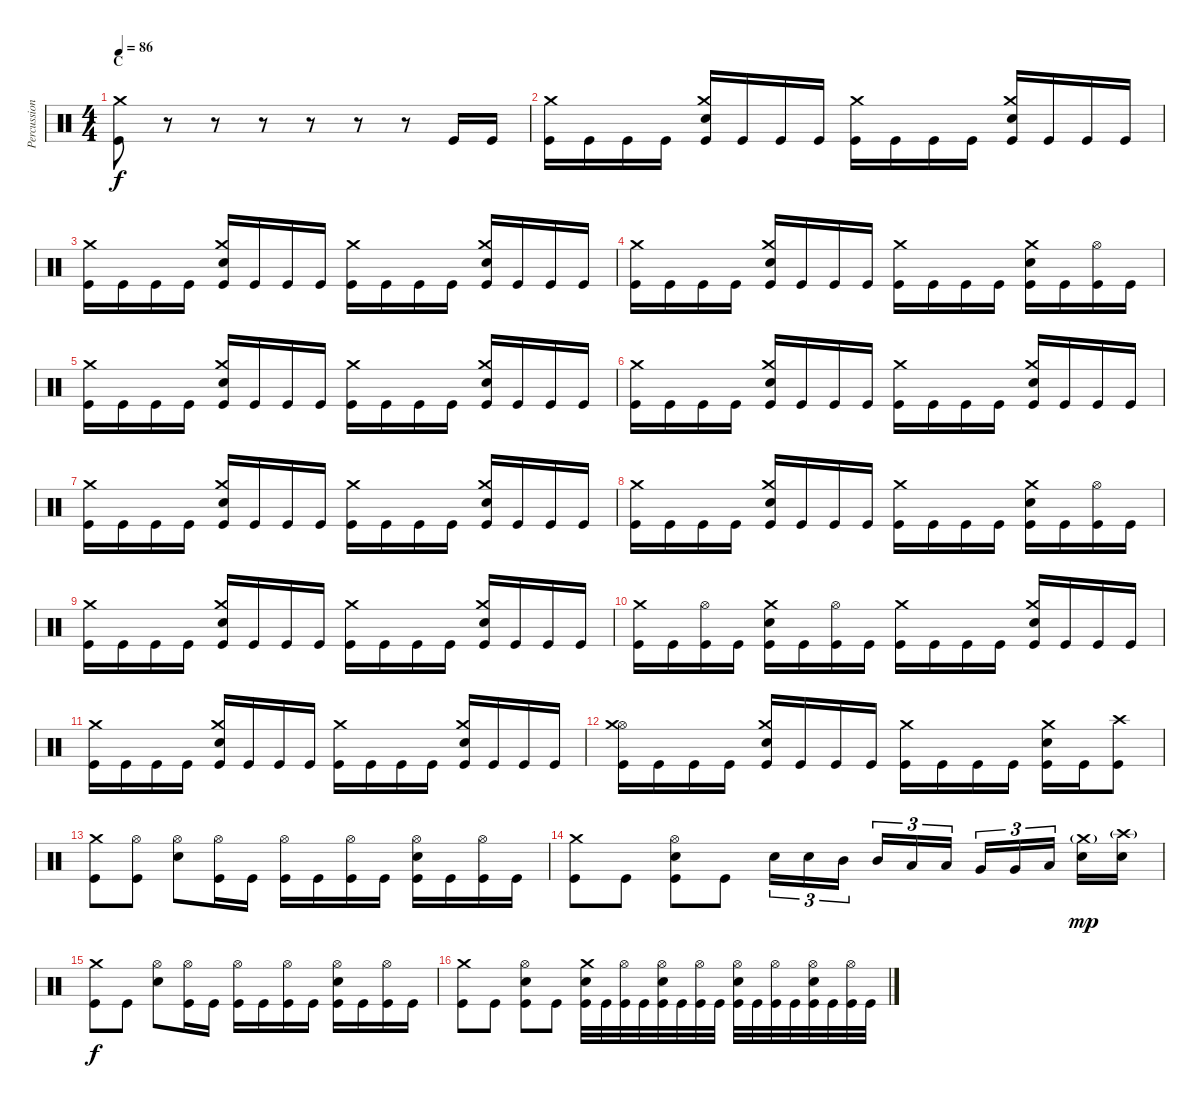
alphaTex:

\track ("Percussion" "Percussion") {instrument percussion}
\staff {score}
\articulation defaults
\ts (4 4)
\section ("" "C")
\tempo 86
\clef neutral
\ks c
("Kick (hit)" "Crash medium (hit)").8{dy f} r.8 r.8 r.8 r.8 r.8 r.8 "Kick (hit)".16 "Kick (hit)".16 |
("Kick (hit)" "Crash medium (hit)").16 "Kick (hit)".16 "Kick (hit)".16 "Kick (hit)".16 ("Kick (hit)" "Snare (hit) 2" "Crash medium (hit)").16 "Kick (hit)".16 "Kick (hit)".16 "Kick (hit)".16 ("Kick (hit)" "Crash medium (hit)").16 "Kick (hit)".16 "Kick (hit)".16 "Kick (hit)".16 ("Kick (hit)" "Snare (hit) 2" "Crash medium (hit)").16 "Kick (hit)".16 "Kick (hit)".16 "Kick (hit)".16 |
("Kick (hit)" "Crash medium (hit)").16 "Kick (hit)".16 "Kick (hit)".16 "Kick (hit)".16 ("Kick (hit)" "Snare (hit) 2" "Crash medium (hit)").16 "Kick (hit)".16 "Kick (hit)".16 "Kick (hit)".16 ("Kick (hit)" "Crash medium (hit)").16 "Kick (hit)".16 "Kick (hit)".16 "Kick (hit)".16 ("Kick (hit)" "Snare (hit) 2" "Crash medium (hit)").16 "Kick (hit)".16 "Kick (hit)".16 "Kick (hit)".16 |
("Kick (hit)" "Crash medium (hit)").16 "Kick (hit)".16 "Kick (hit)".16 "Kick (hit)".16 ("Kick (hit)" "Snare (hit) 2" "Crash medium (hit)").16 "Kick (hit)".16 "Kick (hit)".16 "Kick (hit)".16 ("Kick (hit)" "Crash medium (hit)").16 "Kick (hit)".16 "Kick (hit)".16 "Kick (hit)".16 ("Kick (hit)" "Snare (hit) 2" "Crash medium (hit)").16 "Kick (hit)".16 ("Kick (hit)" "Hi-Hat (open)").16 "Kick (hit)".16 |
("Kick (hit)" "Crash medium (hit)").16 "Kick (hit)".16 "Kick (hit)".16 "Kick (hit)".16 ("Kick (hit)" "Snare (hit) 2" "Crash medium (hit)").16 "Kick (hit)".16 "Kick (hit)".16 "Kick (hit)".16 ("Kick (hit)" "Crash medium (hit)").16 "Kick (hit)".16 "Kick (hit)".16 "Kick (hit)".16 ("Kick (hit)" "Snare (hit) 2" "Crash medium (hit)").16 "Kick (hit)".16 "Kick (hit)".16 "Kick (hit)".16 |
("Kick (hit)" "Crash medium (hit)").16 "Kick (hit)".16 "Kick (hit)".16 "Kick (hit)".16 ("Kick (hit)" "Snare (hit) 2" "Crash medium (hit)").16 "Kick (hit)".16 "Kick (hit)".16 "Kick (hit)".16 ("Kick (hit)" "Crash medium (hit)").16 "Kick (hit)".16 "Kick (hit)".16 "Kick (hit)".16 ("Kick (hit)" "Snare (hit) 2" "Crash medium (hit)").16 "Kick (hit)".16 "Kick (hit)".16 "Kick (hit)".16 |
("Kick (hit)" "Crash medium (hit)").16 "Kick (hit)".16 "Kick (hit)".16 "Kick (hit)".16 ("Kick (hit)" "Snare (hit) 2" "Crash medium (hit)").16 "Kick (hit)".16 "Kick (hit)".16 "Kick (hit)".16 ("Kick (hit)" "Crash medium (hit)").16 "Kick (hit)".16 "Kick (hit)".16 "Kick (hit)".16 ("Kick (hit)" "Snare (hit) 2" "Crash medium (hit)").16 "Kick (hit)".16 "Kick (hit)".16 "Kick (hit)".16 |
("Kick (hit)" "Crash medium (hit)").16 "Kick (hit)".16 "Kick (hit)".16 "Kick (hit)".16 ("Kick (hit)" "Snare (hit) 2" "Crash medium (hit)").16 "Kick (hit)".16 "Kick (hit)".16 "Kick (hit)".16 ("Kick (hit)" "Crash medium (hit)").16 "Kick (hit)".16 "Kick (hit)".16 "Kick (hit)".16 ("Kick (hit)" "Snare (hit) 2" "Crash medium (hit)").16 "Kick (hit)".16 ("Kick (hit)" "Hi-Hat (open)").16 "Kick (hit)".16 |
("Kick (hit)" "Crash medium (hit)").16 "Kick (hit)".16 "Kick (hit)".16 "Kick (hit)".16 ("Kick (hit)" "Snare (hit) 2" "Crash medium (hit)").16 "Kick (hit)".16 "Kick (hit)".16 "Kick (hit)".16 ("Kick (hit)" "Crash medium (hit)").16 "Kick (hit)".16 "Kick (hit)".16 "Kick (hit)".16 ("Kick (hit)" "Snare (hit) 2" "Crash medium (hit)").16 "Kick (hit)".16 "Kick (hit)".16 "Kick (hit)".16 |
("Kick (hit)" "Crash medium (hit)").16 "Kick (hit)".16 ("Kick (hit)" "Hi-Hat (open)").16 "Kick (hit)".16 ("Kick (hit)" "Snare (hit) 2" "Crash medium (hit)").16 "Kick (hit)".16 ("Kick (hit)" "Hi-Hat (open)").16 "Kick (hit)".16 ("Kick (hit)" "Crash medium (hit)").16 "Kick (hit)".16 "Kick (hit)".16 "Kick (hit)".16 ("Kick (hit)" "Snare (hit) 2" "Crash medium (hit)").16 "Kick (hit)".16 "Kick (hit)".16 "Kick (hit)".16 |
("Kick (hit)" "Crash medium (hit)").16 "Kick (hit)".16 "Kick (hit)".16 "Kick (hit)".16 ("Kick (hit)" "Snare (hit) 2" "Crash medium (hit)").16 "Kick (hit)".16 "Kick (hit)".16 "Kick (hit)".16 ("Kick (hit)" "Crash medium (hit)").16 "Kick (hit)".16 "Kick (hit)".16 "Kick (hit)".16 ("Kick (hit)" "Snare (hit) 2" "Crash medium (hit)").16 "Kick (hit)".16 "Kick (hit)".16 "Kick (hit)".16 |
("Kick (hit)" "Hi-Hat (open)" "Crash medium (hit)").16 "Kick (hit)".16 "Kick (hit)".16 "Kick (hit)".16 ("Kick (hit)" "Snare (hit) 2" "Crash medium (hit)").16 "Kick (hit)".16 "Kick (hit)".16 "Kick (hit)".16 ("Kick (hit)" "Crash medium (hit)").16 "Kick (hit)".16 "Kick (hit)".16 "Kick (hit)".16 ("Kick (hit)" "Snare (hit) 2" "Crash medium (hit)").16 "Kick (hit)".16 ("Kick (hit)" "Crash high (hit)").8 |
("Kick (hit)" "Crash medium (hit)").8 ("Kick (hit)" "Hi-Hat (open)").8 ("Snare (hit) 2" "Hi-Hat (open)").8 ("Kick (hit)" "Hi-Hat (open)").16 "Kick (hit)".16 ("Kick (hit)" "Hi-Hat (open)").16 "Kick (hit)".16 ("Kick (hit)" "Hi-Hat (open)").16 "Kick (hit)".16 ("Kick (hit)" "Snare (hit) 2" "Hi-Hat (open)").16 "Kick (hit)".16 ("Kick (hit)" "Hi-Hat (open)").16 "Kick (hit)".16 |
("Kick (hit)" "Crash medium (hit)").8 "Kick (hit)".8 ("Kick (hit)" "Snare (hit) 2" "Hi-Hat (open)").8 "Kick (hit)".8 "Snare (hit) 2".16{tu (3 2)} "Snare (hit) 2".16{tu (3 2)} "Mid Tom (hit)".16{tu (3 2) beam splitsecondary} "Mid Tom (hit)".16{tu (3 2)} "Low Tom (hit)".16{tu (3 2)} "Low Tom (hit)".16{tu (3 2)} "Very Low Tom (hit)".16{tu (3 2)} "Very Low Tom (hit)".16{tu (3 2)} "Low Floor Tom (hit)".16{tu (3 2) beam splitsecondary} ("Crash medium (hit)"{g} "Snare (hit) 2").16{dy mp} ("Crash high (hit)"{g} "Snare (hit) 2").16 |
("Kick (hit)" "Crash medium (hit)").8{dy f} "Kick (hit)".8 ("Snare (hit) 2" "Hi-Hat (open)").8 ("Kick (hit)" "Hi-Hat (open)").16 "Kick (hit)".16 ("Kick (hit)" "Hi-Hat (open)").16 "Kick (hit)".16 ("Kick (hit)" "Hi-Hat (open)").16 "Kick (hit)".16 ("Kick (hit)" "Snare (hit) 2" "Hi-Hat (open)").16 "Kick (hit)".16 ("Kick (hit)" "Hi-Hat (open)").16 "Kick (hit)".16 |
("Kick (hit)" "Crash medium (hit)").8 "Kick (hit)".8 ("Kick (hit)" "Snare (hit) 2" "Hi-Hat (open)").8 "Kick (hit)".8 ("Kick (hit)" "Snare (hit) 2" "Crash medium (hit)").32 "Kick (hit)".32 ("Kick (hit)" "Hi-Hat (open)").32 "Kick (hit)".32 ("Kick (hit)" "Snare (hit) 2" "Hi-Hat (open)").32 "Kick (hit)".32 ("Kick (hit)" "Hi-Hat (open)").32 "Kick (hit)".32 ("Kick (hit)" "Snare (hit) 2" "Hi-Hat (open)").32 "Kick (hit)".32 ("Kick (hit)" "Hi-Hat (open)").32 "Kick (hit)".32 ("Kick (hit)" "Snare (hit) 2" "Hi-Hat (open)").32 "Kick (hit)".32 ("Kick (hit)" "Hi-Hat (open)").32 "Kick (hit)".32
